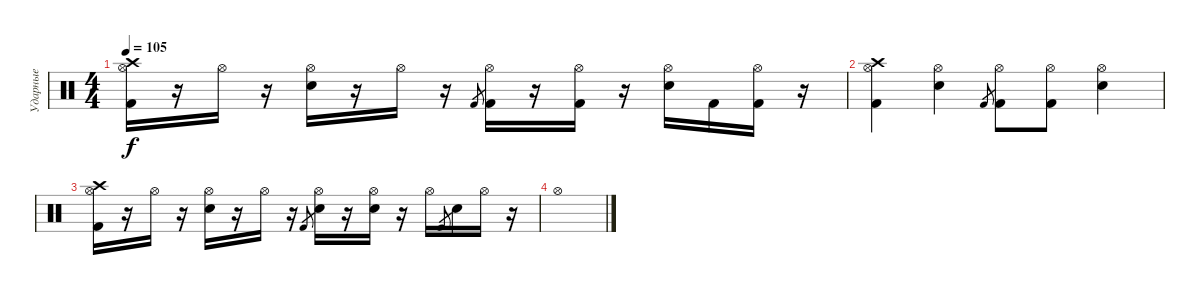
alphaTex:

\track ("Ударные" "Ударные") {instrument percussion}
\staff {score}
\articulation defaults
\ts (4 4)
\tempo 105
\clef neutral
\ks c
("Hi-Hat (open)" "Crash high (hit)" "Kick (hit) 2").16{dy f} r.16 "Hi-Hat (open)".16 r.16 ("Hi-Hat (open)" "Electric Snare (hit)").16 r.16 "Hi-Hat (open)".16 r.16 "Kick (hit) 2".8{gr} ("Hi-Hat (open)" "Kick (hit) 2").16 r.16 ("Hi-Hat (open)" "Kick (hit) 2").16 r.16 ("Hi-Hat (open)" "Electric Snare (hit)").16 "Kick (hit) 2".16 ("Hi-Hat (open)" "Kick (hit) 2").16 r.16 |
("Hi-Hat (open)" "Crash high (hit)" "Kick (hit) 2").4 ("Hi-Hat (open)" "Electric Snare (hit)").4 "Kick (hit) 2".8{gr} ("Hi-Hat (open)" "Kick (hit) 2").8 ("Hi-Hat (open)" "Kick (hit) 2").8 ("Hi-Hat (open)" "Electric Snare (hit)").4 |
("Hi-Hat (open)" "Crash high (hit)" "Kick (hit) 2").16 r.16 "Hi-Hat (open)".16 r.16 ("Hi-Hat (open)" "Electric Snare (hit)").16 r.16 "Hi-Hat (open)".16 r.16 "Kick (hit) 2".8{gr} ("Hi-Hat (open)" "Electric Snare (hit)").16 r.16 ("Hi-Hat (open)" "Electric Snare (hit)").16 r.16 "Hi-Hat (open)".16 "Kick (hit) 2".8{gr} "Electric Snare (hit)".16 "Hi-Hat (open)".16 r.16 |
"Hi-Hat (open)".1
